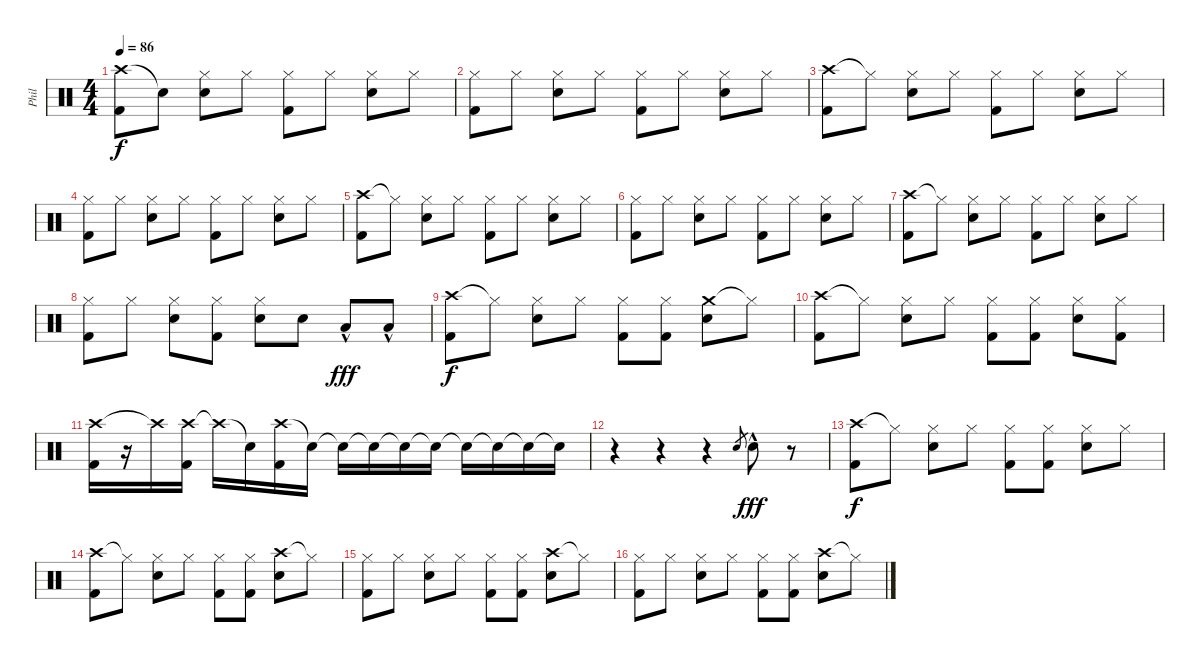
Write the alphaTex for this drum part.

\track ("Phil" "Phil") {instrument percussion}
\staff {score}
\articulation defaults
\ts (4 4)
\tempo 86
\clef neutral
\ks c
("Crash high (hit)" "Kick (hit) 2").8{dy f} "Snare (hit)"{t}.8 ("Hi-Hat (closed)" "Snare (hit) 2").8 "Hi-Hat (closed)".8 ("Hi-Hat (closed)" "Kick (hit) 2").8 "Hi-Hat (closed)".8 ("Hi-Hat (closed)" "Snare (hit) 2").8 "Hi-Hat (closed)".8 |
("Hi-Hat (closed)" "Kick (hit) 2").8 "Hi-Hat (closed)".8 ("Hi-Hat (closed)" "Snare (hit) 2").8 "Hi-Hat (closed)".8 ("Hi-Hat (closed)" "Kick (hit) 2").8 "Hi-Hat (closed)".8 ("Hi-Hat (closed)" "Snare (hit) 2").8 "Hi-Hat (closed)".8 |
("Crash high (hit)" "Kick (hit) 2").8 "Hi-Hat (closed)"{t}.8 ("Hi-Hat (closed)" "Snare (hit) 2").8 "Hi-Hat (closed)".8 ("Hi-Hat (closed)" "Kick (hit) 2").8 "Hi-Hat (closed)".8 ("Hi-Hat (closed)" "Snare (hit) 2").8 "Hi-Hat (closed)".8 |
("Hi-Hat (closed)" "Kick (hit) 2").8 "Hi-Hat (closed)".8 ("Hi-Hat (closed)" "Snare (hit) 2").8 "Hi-Hat (closed)".8 ("Hi-Hat (closed)" "Kick (hit) 2").8 "Hi-Hat (closed)".8 ("Hi-Hat (closed)" "Snare (hit) 2").8 "Hi-Hat (closed)".8 |
("Crash high (hit)" "Kick (hit) 2").8 "Hi-Hat (closed)"{t}.8 ("Hi-Hat (closed)" "Snare (hit) 2").8 "Hi-Hat (closed)".8 ("Hi-Hat (closed)" "Kick (hit) 2").8 "Hi-Hat (closed)".8 ("Hi-Hat (closed)" "Snare (hit) 2").8 "Hi-Hat (closed)".8 |
("Hi-Hat (closed)" "Kick (hit) 2").8 "Hi-Hat (closed)".8 ("Hi-Hat (closed)" "Snare (hit) 2").8 "Hi-Hat (closed)".8 ("Hi-Hat (closed)" "Kick (hit) 2").8 "Hi-Hat (closed)".8 ("Hi-Hat (closed)" "Snare (hit) 2").8 "Hi-Hat (closed)".8 |
("Crash high (hit)" "Kick (hit) 2").8 "Hi-Hat (closed)"{t}.8 ("Hi-Hat (closed)" "Snare (hit) 2").8 "Hi-Hat (closed)".8 ("Hi-Hat (closed)" "Kick (hit) 2").8 "Hi-Hat (closed)".8 ("Hi-Hat (closed)" "Snare (hit) 2").8 "Hi-Hat (closed)".8 |
("Hi-Hat (closed)" "Kick (hit) 2").8 "Hi-Hat (closed)".8 ("Hi-Hat (closed)" "Snare (hit) 2").8 ("Hi-Hat (closed)" "Kick (hit) 2").8 ("Hi-Hat (closed)" "Snare (hit) 2").8 "Snare (hit) 2".8 "Low Floor Tom (hit)"{hac}.8{dy fff} "Low Floor Tom (hit)"{hac}.8 |
("Crash high (hit)" "Kick (hit) 2").8{dy f} "Hi-Hat (closed)"{t}.8 ("Hi-Hat (closed)" "Snare (hit) 2").8 "Hi-Hat (closed)".8 ("Hi-Hat (closed)" "Kick (hit) 2").8 ("Hi-Hat (closed)" "Kick (hit) 2").8 ("Crash medium (hit)" "Snare (hit) 2").8 "Hi-Hat (closed)"{t}.8 |
("Crash high (hit)" "Kick (hit) 2").8 "Hi-Hat (closed)"{t}.8 ("Hi-Hat (closed)" "Snare (hit) 2").8 "Hi-Hat (closed)".8 ("Hi-Hat (closed)" "Kick (hit) 2").8 ("Hi-Hat (closed)" "Kick (hit) 2").8 ("Hi-Hat (closed)" "Snare (hit) 2").8 ("Hi-Hat (closed)" "Kick (hit) 2").8 |
("Crash high (hit)" "Kick (hit) 2").16 r.16 "Crash high (hit)"{t}.16 ("Crash high (hit)" "Kick (hit) 2").16 "Crash high (hit)"{t}.16 "Snare (hit)"{t}.16 ("Crash high (hit)" "Kick (hit) 2").16 "Snare (hit)"{t}.16 "Snare (hit)"{t}.16 "Snare (hit)"{t}.16 "Snare (hit)"{t}.16 "Snare (hit)"{t}.16 "Snare (hit)"{t}.16 "Snare (hit)"{t}.16 "Snare (hit)"{t}.16 "Snare (hit)"{t}.16 |
r.4 r.4 r.4 "Snare (hit) 2".8{gr} "Snare (hit) 2"{hac}.8{dy fff} r.8 |
("Crash high (hit)" "Kick (hit) 2").8{dy f} "Hi-Hat (closed)"{t}.8 ("Hi-Hat (closed)" "Snare (hit) 2").8 "Hi-Hat (closed)".8 ("Hi-Hat (closed)" "Kick (hit) 2").8 ("Hi-Hat (closed)" "Kick (hit) 2").8 ("Hi-Hat (closed)" "Snare (hit) 2").8 "Hi-Hat (closed)".8 |
("Crash high (hit)" "Kick (hit) 2").8 "Hi-Hat (closed)"{t}.8 ("Hi-Hat (closed)" "Snare (hit) 2").8 "Hi-Hat (closed)".8 ("Hi-Hat (closed)" "Kick (hit) 2").8 ("Hi-Hat (closed)" "Kick (hit) 2").8 ("Crash high (hit)" "Snare (hit) 2").8 "Hi-Hat (closed)"{t}.8 |
("Hi-Hat (closed)" "Kick (hit) 2").8 "Hi-Hat (closed)".8 ("Hi-Hat (closed)" "Snare (hit) 2").8 "Hi-Hat (closed)".8 ("Hi-Hat (closed)" "Kick (hit) 2").8 ("Hi-Hat (closed)" "Kick (hit) 2").8 ("Crash high (hit)" "Snare (hit) 2").8 "Hi-Hat (closed)"{t}.8 |
("Hi-Hat (closed)" "Kick (hit) 2").8 "Hi-Hat (closed)".8 ("Hi-Hat (closed)" "Snare (hit) 2").8 "Hi-Hat (closed)".8 ("Hi-Hat (closed)" "Kick (hit) 2").8 ("Hi-Hat (closed)" "Kick (hit) 2").8 ("Crash high (hit)" "Snare (hit) 2").8 "Hi-Hat (closed)"{t}.8
